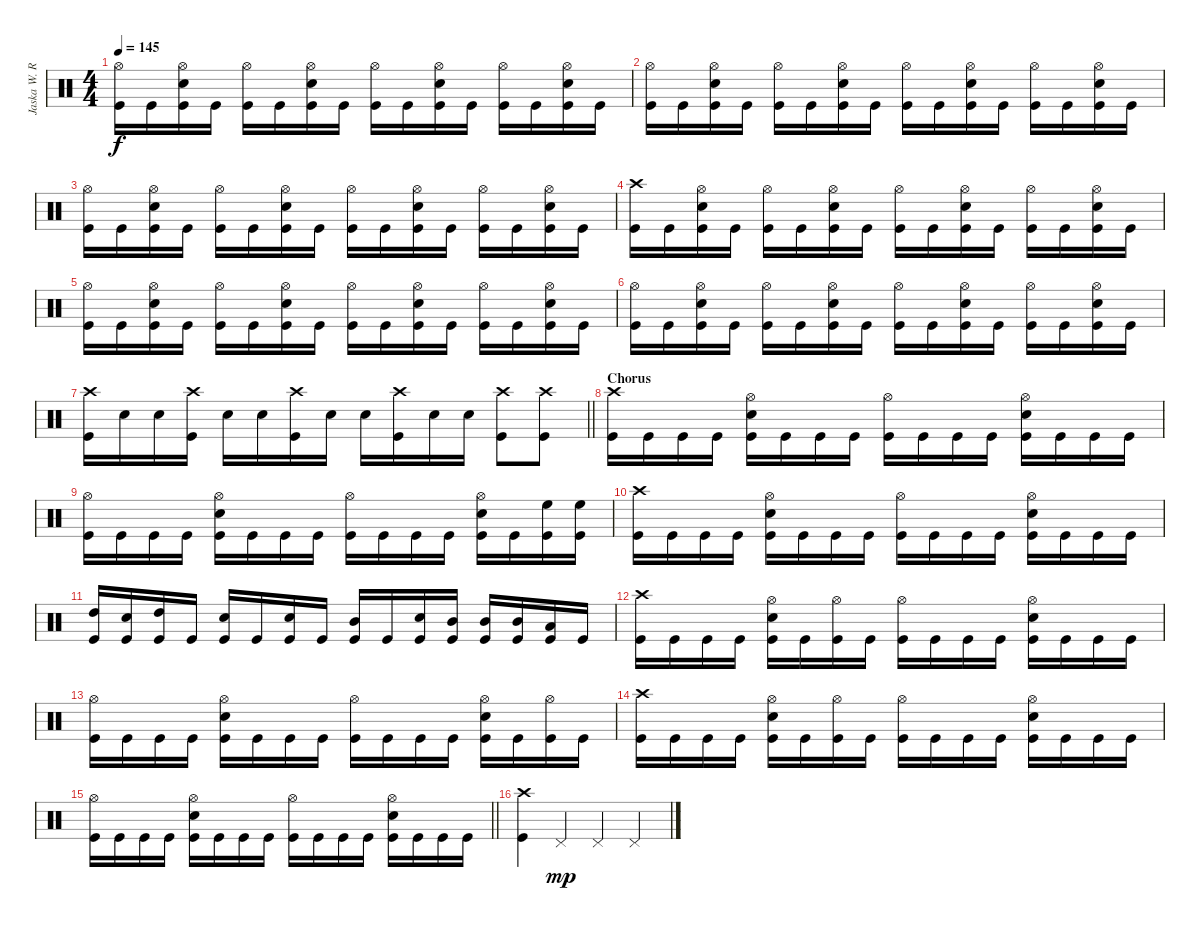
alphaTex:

\track ("Jaska W. Raatikainen" "Jaska W. R") {instrument percussion}
\staff {score}
\articulation defaults
\ts (4 4)
\tempo 145
\clef neutral
\ks c
("Hi-Hat (open)" "Kick (hit)").16{dy f} "Kick (hit)".16 ("Hi-Hat (open)" "Snare (hit) 2" "Kick (hit)").16 "Kick (hit)".16 ("Hi-Hat (open)" "Kick (hit)").16 "Kick (hit)".16 ("Hi-Hat (open)" "Snare (hit) 2" "Kick (hit)").16 "Kick (hit)".16 ("Hi-Hat (open)" "Kick (hit)").16 "Kick (hit)".16 ("Hi-Hat (open)" "Snare (hit) 2" "Kick (hit)").16 "Kick (hit)".16 ("Hi-Hat (open)" "Kick (hit)").16 "Kick (hit)".16 ("Hi-Hat (open)" "Snare (hit) 2" "Kick (hit)").16 "Kick (hit)".16 |
("Hi-Hat (open)" "Kick (hit)").16 "Kick (hit)".16 ("Hi-Hat (open)" "Snare (hit) 2" "Kick (hit)").16 "Kick (hit)".16 ("Hi-Hat (open)" "Kick (hit)").16 "Kick (hit)".16 ("Hi-Hat (open)" "Snare (hit) 2" "Kick (hit)").16 "Kick (hit)".16 ("Hi-Hat (open)" "Kick (hit)").16 "Kick (hit)".16 ("Hi-Hat (open)" "Snare (hit) 2" "Kick (hit)").16 "Kick (hit)".16 ("Hi-Hat (open)" "Kick (hit)").16 "Kick (hit)".16 ("Hi-Hat (open)" "Snare (hit) 2" "Kick (hit)").16 "Kick (hit)".16 |
("Hi-Hat (open)" "Kick (hit)").16 "Kick (hit)".16 ("Hi-Hat (open)" "Snare (hit) 2" "Kick (hit)").16 "Kick (hit)".16 ("Hi-Hat (open)" "Kick (hit)").16 "Kick (hit)".16 ("Hi-Hat (open)" "Snare (hit) 2" "Kick (hit)").16 "Kick (hit)".16 ("Hi-Hat (open)" "Kick (hit)").16 "Kick (hit)".16 ("Hi-Hat (open)" "Snare (hit) 2" "Kick (hit)").16 "Kick (hit)".16 ("Hi-Hat (open)" "Kick (hit)").16 "Kick (hit)".16 ("Hi-Hat (open)" "Snare (hit) 2" "Kick (hit)").16 "Kick (hit)".16 |
("Crash high (hit)" "Kick (hit)").16 "Kick (hit)".16 ("Hi-Hat (open)" "Snare (hit) 2" "Kick (hit)").16 "Kick (hit)".16 ("Hi-Hat (open)" "Kick (hit)").16 "Kick (hit)".16 ("Hi-Hat (open)" "Snare (hit) 2" "Kick (hit)").16 "Kick (hit)".16 ("Hi-Hat (open)" "Kick (hit)").16 "Kick (hit)".16 ("Hi-Hat (open)" "Snare (hit) 2" "Kick (hit)").16 "Kick (hit)".16 ("Hi-Hat (open)" "Kick (hit)").16 "Kick (hit)".16 ("Hi-Hat (open)" "Snare (hit) 2" "Kick (hit)").16 "Kick (hit)".16 |
("Hi-Hat (open)" "Kick (hit)").16 "Kick (hit)".16 ("Hi-Hat (open)" "Snare (hit) 2" "Kick (hit)").16 "Kick (hit)".16 ("Hi-Hat (open)" "Kick (hit)").16 "Kick (hit)".16 ("Hi-Hat (open)" "Snare (hit) 2" "Kick (hit)").16 "Kick (hit)".16 ("Hi-Hat (open)" "Kick (hit)").16 "Kick (hit)".16 ("Hi-Hat (open)" "Snare (hit) 2" "Kick (hit)").16 "Kick (hit)".16 ("Hi-Hat (open)" "Kick (hit)").16 "Kick (hit)".16 ("Hi-Hat (open)" "Snare (hit) 2" "Kick (hit)").16 "Kick (hit)".16 |
("Hi-Hat (open)" "Kick (hit)").16 "Kick (hit)".16 ("Hi-Hat (open)" "Snare (hit) 2" "Kick (hit)").16 "Kick (hit)".16 ("Hi-Hat (open)" "Kick (hit)").16 "Kick (hit)".16 ("Hi-Hat (open)" "Snare (hit) 2" "Kick (hit)").16 "Kick (hit)".16 ("Hi-Hat (open)" "Kick (hit)").16 "Kick (hit)".16 ("Hi-Hat (open)" "Snare (hit) 2" "Kick (hit)").16 "Kick (hit)".16 ("Hi-Hat (open)" "Kick (hit)").16 "Kick (hit)".16 ("Hi-Hat (open)" "Snare (hit) 2" "Kick (hit)").16 "Kick (hit)".16 |
\barLineRight lightlight
("Crash high (hit)" "Kick (hit)").16 "Snare (hit) 2".16 "Snare (hit) 2".16 ("Crash high (hit)" "Kick (hit)").16 "Snare (hit) 2".16 "Snare (hit) 2".16 ("Crash high (hit)" "Kick (hit)").16 "Snare (hit) 2".16 "Snare (hit) 2".16 ("Crash high (hit)" "Kick (hit)").16 "Snare (hit) 2".16 "Snare (hit) 2".16 ("Crash high (hit)" "Kick (hit)").8 ("Crash high (hit)" "Kick (hit)").8 |
\section ("" "Chorus")
("Crash high (hit)" "Kick (hit)").16 "Kick (hit)".16 "Kick (hit)".16 "Kick (hit)".16 ("Hi-Hat (open)" "Snare (hit) 2" "Kick (hit)").16 "Kick (hit)".16 "Kick (hit)".16 "Kick (hit)".16 ("Hi-Hat (open)" "Kick (hit)").16 "Kick (hit)".16 "Kick (hit)".16 "Kick (hit)".16 ("Hi-Hat (open)" "Snare (hit) 2" "Kick (hit)").16 "Kick (hit)".16 "Kick (hit)".16 "Kick (hit)".16 |
("Hi-Hat (open)" "Kick (hit)").16 "Kick (hit)".16 "Kick (hit)".16 "Kick (hit)".16 ("Hi-Hat (open)" "Snare (hit) 2" "Kick (hit)").16 "Kick (hit)".16 "Kick (hit)".16 "Kick (hit)".16 ("Hi-Hat (open)" "Kick (hit)").16 "Kick (hit)".16 "Kick (hit)".16 "Kick (hit)".16 ("Hi-Hat (open)" "Snare (hit) 2" "Kick (hit)").16 "Kick (hit)".16 ("High Floor Tom (hit)" "Kick (hit)").16 ("High Floor Tom (hit)" "Kick (hit)").16 |
("Crash high (hit)" "Kick (hit)").16 "Kick (hit)".16 "Kick (hit)".16 "Kick (hit)".16 ("Hi-Hat (open)" "Snare (hit) 2" "Kick (hit)").16 "Kick (hit)".16 "Kick (hit)".16 "Kick (hit)".16 ("Hi-Hat (open)" "Kick (hit)").16 "Kick (hit)".16 "Kick (hit)".16 "Kick (hit)".16 ("Hi-Hat (open)" "Snare (hit) 2" "Kick (hit)").16 "Kick (hit)".16 "Kick (hit)".16 "Kick (hit)".16 |
("High Tom (hit)" "Kick (hit)").16 ("Snare (hit) 2" "Kick (hit)").16 ("High Tom (hit)" "Kick (hit)").16 "Kick (hit)".16 ("Snare (hit) 2" "Kick (hit)").16 "Kick (hit)".16 ("Snare (hit) 2" "Kick (hit)").16 "Kick (hit)".16 ("Mid Tom (hit)" "Kick (hit)").16 "Kick (hit)".16 ("Snare (hit) 2" "Kick (hit)").16 ("Mid Tom (hit)" "Kick (hit)").16 ("Mid Tom (hit)" "Kick (hit)").16 ("Mid Tom (hit)" "Kick (hit)").16 ("Low Tom (hit)" "Kick (hit)").16 "Kick (hit)".16 |
("Crash high (hit)" "Kick (hit)").16 "Kick (hit)".16 "Kick (hit)".16 "Kick (hit)".16 ("Hi-Hat (open)" "Snare (hit) 2" "Kick (hit)").16 "Kick (hit)".16 ("Hi-Hat (open)" "Kick (hit)").16 "Kick (hit)".16 ("Hi-Hat (open)" "Kick (hit)").16 "Kick (hit)".16 "Kick (hit)".16 "Kick (hit)".16 ("Hi-Hat (open)" "Snare (hit) 2" "Kick (hit)").16 "Kick (hit)".16 "Kick (hit)".16 "Kick (hit)".16 |
("Hi-Hat (open)" "Kick (hit)").16 "Kick (hit)".16 "Kick (hit)".16 "Kick (hit)".16 ("Hi-Hat (open)" "Snare (hit) 2" "Kick (hit)").16 "Kick (hit)".16 "Kick (hit)".16 "Kick (hit)".16 ("Hi-Hat (open)" "Kick (hit)").16 "Kick (hit)".16 "Kick (hit)".16 "Kick (hit)".16 ("Hi-Hat (open)" "Snare (hit) 2" "Kick (hit)").16 "Kick (hit)".16 ("Hi-Hat (open)" "Kick (hit)").16 "Kick (hit)".16 |
("Crash high (hit)" "Kick (hit)").16 "Kick (hit)".16 "Kick (hit)".16 "Kick (hit)".16 ("Hi-Hat (open)" "Snare (hit) 2" "Kick (hit)").16 "Kick (hit)".16 ("Hi-Hat (open)" "Kick (hit)").16 "Kick (hit)".16 ("Hi-Hat (open)" "Kick (hit)").16 "Kick (hit)".16 "Kick (hit)".16 "Kick (hit)".16 ("Hi-Hat (open)" "Snare (hit) 2" "Kick (hit)").16 "Kick (hit)".16 "Kick (hit)".16 "Kick (hit)".16 |
\barLineRight lightlight
("Hi-Hat (open)" "Kick (hit)").16 "Kick (hit)".16 "Kick (hit)".16 "Kick (hit)".16 ("Hi-Hat (open)" "Snare (hit) 2" "Kick (hit)").16 "Kick (hit)".16 "Kick (hit)".16 "Kick (hit)".16 ("Hi-Hat (open)" "Kick (hit)").16 "Kick (hit)".16 "Kick (hit)".16 "Kick (hit)".16 ("Hi-Hat (open)" "Snare (hit) 2" "Kick (hit)").16 "Kick (hit)".16 "Kick (hit)".16 "Kick (hit)".16 |
("Crash high (hit)" "Kick (hit)").4 "Pedal Hi-Hat (hit)".4{dy mp} "Pedal Hi-Hat (hit)".4 "Pedal Hi-Hat (hit)".4
